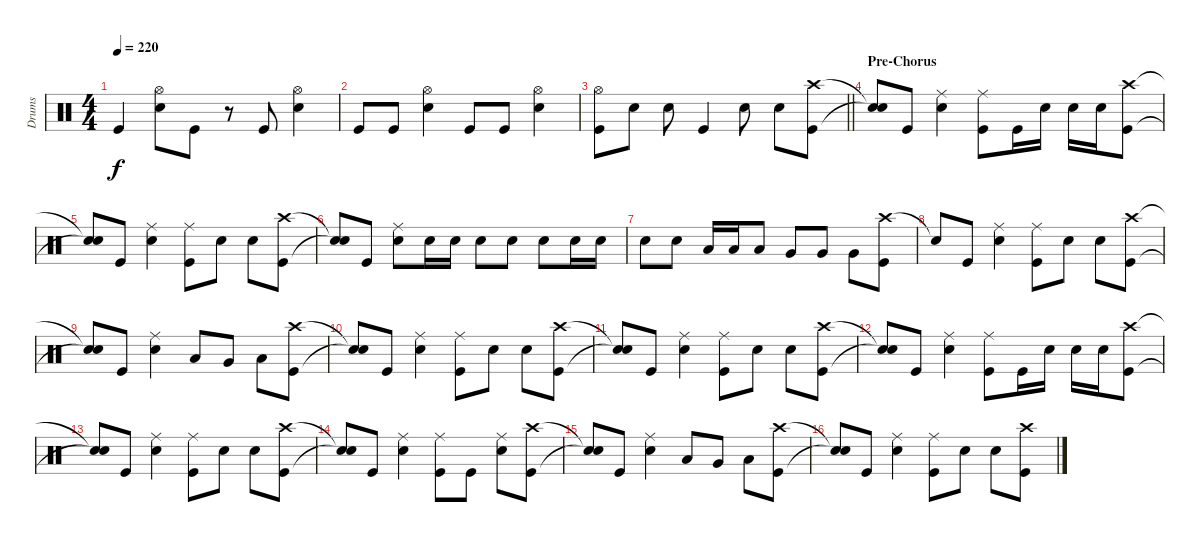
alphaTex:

\track ("Drums" "Drums") {instrument percussion}
\staff {score}
\articulation defaults
\ts (4 4)
\tempo 220
\clef neutral
\ks c "Kick (hit)".4{dy f}
("Hi-Hat (open)" "Snare (hit) 2").8 "Kick (hit)".8 r.8 "Kick (hit)".8 ("Hi-Hat (open)" "Snare (hit) 2").4 |
"Kick (hit)".8 "Kick (hit)".8 ("Hi-Hat (open)" "Snare (hit) 2").4 "Kick (hit)".8 "Kick (hit)".8 ("Hi-Hat (open)" "Snare (hit) 2").4 |
\barLineRight lightlight
("Hi-Hat (open)" "Kick (hit)").8 "Snare (hit) 2".8 "Snare (hit) 2".8 "Kick (hit)".4 "Snare (hit) 2".8 "Snare (hit) 2".8 ("Crash high (hit)" "Kick (hit)").8 |
\section ("" "Pre-Chorus")
("Snare (hit)"{t} "Snare (hit)"{t}).8 "Kick (hit)".8 ("Ride (middle)" "Snare (hit) 2").4 ("Ride (middle)" "Kick (hit)").8 "Kick (hit)".16 "Snare (hit) 2".16 "Snare (hit) 2".16 "Snare (hit) 2".16 ("Crash high (hit)" "Kick (hit)").8 |
("Snare (hit)"{t} "Snare (hit)"{t}).8 "Kick (hit)".8 ("Ride (middle)" "Snare (hit) 2").4 ("Ride (middle)" "Kick (hit)").8 "Snare (hit) 2".8 "Snare (hit) 2".8 ("Crash high (hit)" "Kick (hit)").8 |
("Snare (hit)"{t} "Snare (hit)"{t}).8 "Kick (hit)".8 ("Ride (middle)" "Snare (hit) 2").8 "Snare (hit) 2".16 "Snare (hit) 2".16 "Snare (hit) 2".8 "Snare (hit) 2".8 "Snare (hit) 2".8 "Snare (hit) 2".16 "Snare (hit) 2".16 |
"Snare (hit) 2".8 "Snare (hit) 2".8 "Low Tom (hit)".16 "Low Tom (hit)".16 "Low Tom (hit)".8 "Very Low Tom (hit)".8 "Very Low Tom (hit)".8 "Very Low Tom (hit)".8 ("Crash high (hit)" "Kick (hit)").8 |
"Snare (hit)"{t}.8 "Kick (hit)".8 ("Ride (middle)" "Snare (hit) 2").4 ("Ride (middle)" "Kick (hit)").8 "Snare (hit) 2".8 "Snare (hit) 2".8 ("Crash high (hit)" "Kick (hit)").8 |
("Snare (hit)"{t} "Snare (hit)"{t}).8 "Kick (hit)".8 ("Ride (middle)" "Snare (hit) 2").4 "Low Tom (hit)".8 "Very Low Tom (hit)".8 "Low Floor Tom (hit)".8 ("Crash high (hit)" "Kick (hit)").8 |
("Snare (hit)"{t} "Snare (hit)"{t}).8 "Kick (hit)".8 ("Ride (middle)" "Snare (hit) 2").4 ("Ride (middle)" "Kick (hit)").8 "Snare (hit) 2".8 "Snare (hit) 2".8 ("Crash high (hit)" "Kick (hit)").8 |
("Snare (hit)"{t} "Snare (hit)"{t}).8 "Kick (hit)".8 ("Ride (middle)" "Snare (hit) 2").4 ("Ride (middle)" "Kick (hit)").8 "Snare (hit) 2".8 "Snare (hit) 2".8 ("Crash high (hit)" "Kick (hit)").8 |
("Snare (hit)"{t} "Snare (hit)"{t}).8 "Kick (hit)".8 ("Ride (middle)" "Snare (hit) 2").4 ("Ride (middle)" "Kick (hit)").8 "Kick (hit)".16 "Snare (hit) 2".16 "Snare (hit) 2".16 "Snare (hit) 2".16 ("Crash high (hit)" "Kick (hit)").8 |
("Snare (hit)"{t} "Snare (hit)"{t}).8 "Kick (hit)".8 ("Ride (middle)" "Snare (hit) 2").4 ("Ride (middle)" "Kick (hit)").8 "Snare (hit) 2".8 "Snare (hit) 2".8 ("Crash high (hit)" "Kick (hit)").8 |
("Snare (hit)"{t} "Snare (hit)"{t}).8 "Kick (hit)".8 ("Ride (middle)" "Snare (hit) 2").4 ("Ride (middle)" "Kick (hit)").8 "Kick (hit)".8 ("Ride (middle)" "Snare (hit) 2").8 ("Crash high (hit)" "Kick (hit)").8 |
("Snare (hit)"{t} "Snare (hit)"{t}).8 "Kick (hit)".8 ("Ride (middle)" "Snare (hit) 2").4 "Low Tom (hit)".8 "Very Low Tom (hit)".8 "Low Floor Tom (hit)".8 ("Crash high (hit)" "Kick (hit)").8 |
("Snare (hit)"{t} "Snare (hit)"{t}).8 "Kick (hit)".8 ("Ride (middle)" "Snare (hit) 2").4 ("Ride (middle)" "Kick (hit)").8 "Snare (hit) 2".8 "Snare (hit) 2".8 ("Crash high (hit)" "Kick (hit)").8
